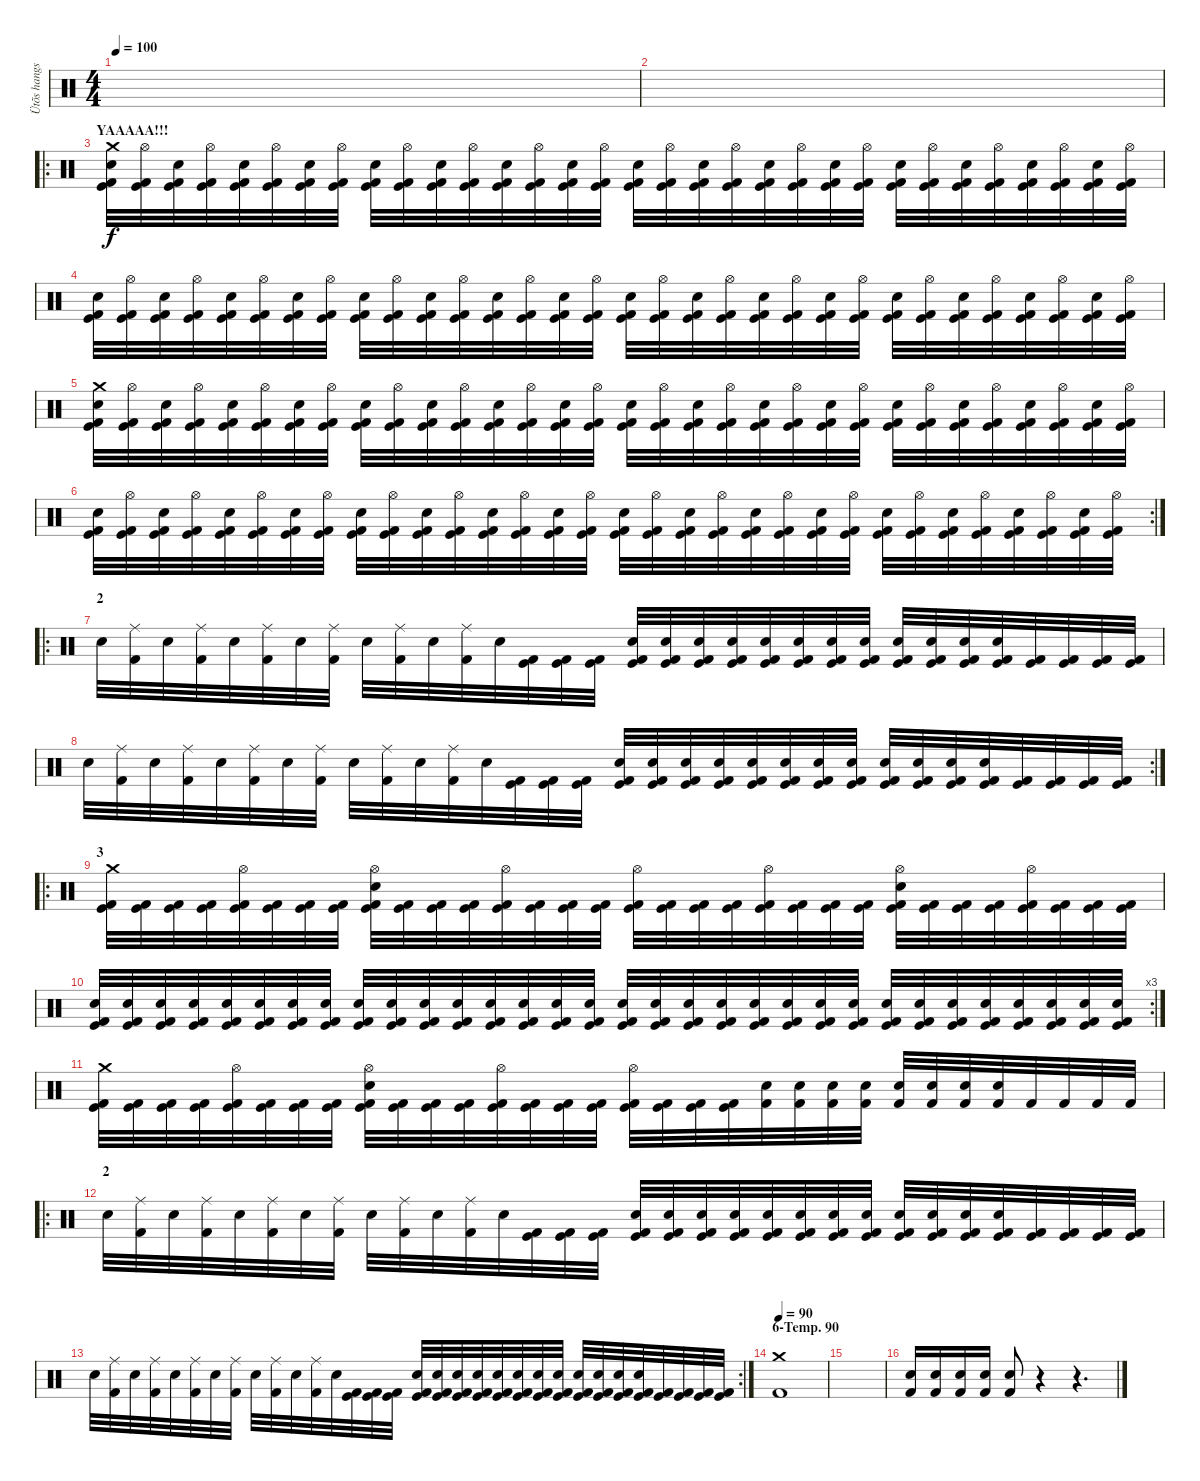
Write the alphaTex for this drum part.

\track ("Ütõs hangszer" "Ütõs hangs") {instrument percussion}
\staff {score}
\articulation defaults
\ts (4 4)
\tempo 100
\clef neutral
\ks c
|
|
\ro
\section ("" "YAAAAA!!!")
("Crash medium (hit)" "Snare (hit) 2" "Kick (hit)" "Kick (hit) 2").32 ("Hi-Hat (open)" "Kick (hit)" "Kick (hit) 2").32 ("Snare (hit) 2" "Kick (hit)" "Kick (hit) 2").32 ("Hi-Hat (open)" "Kick (hit)" "Kick (hit) 2").32 ("Snare (hit) 2" "Kick (hit)" "Kick (hit) 2").32 ("Hi-Hat (open)" "Kick (hit)" "Kick (hit) 2").32 ("Snare (hit) 2" "Kick (hit)" "Kick (hit) 2").32 ("Hi-Hat (open)" "Kick (hit)" "Kick (hit) 2").32 ("Snare (hit) 2" "Kick (hit)" "Kick (hit) 2").32 ("Hi-Hat (open)" "Kick (hit)" "Kick (hit) 2").32 ("Snare (hit) 2" "Kick (hit)" "Kick (hit) 2").32 ("Hi-Hat (open)" "Kick (hit)" "Kick (hit) 2").32 ("Snare (hit) 2" "Kick (hit)" "Kick (hit) 2").32 ("Hi-Hat (open)" "Kick (hit)" "Kick (hit) 2").32 ("Snare (hit) 2" "Kick (hit)" "Kick (hit) 2").32 ("Hi-Hat (open)" "Kick (hit)" "Kick (hit) 2").32 ("Snare (hit) 2" "Kick (hit)" "Kick (hit) 2").32 ("Hi-Hat (open)" "Kick (hit)" "Kick (hit) 2").32 ("Snare (hit) 2" "Kick (hit)" "Kick (hit) 2").32 ("Hi-Hat (open)" "Kick (hit)" "Kick (hit) 2").32 ("Snare (hit) 2" "Kick (hit)" "Kick (hit) 2").32 ("Hi-Hat (open)" "Kick (hit)" "Kick (hit) 2").32 ("Snare (hit) 2" "Kick (hit)" "Kick (hit) 2").32 ("Hi-Hat (open)" "Kick (hit)" "Kick (hit) 2").32 ("Snare (hit) 2" "Kick (hit)" "Kick (hit) 2").32 ("Hi-Hat (open)" "Kick (hit)" "Kick (hit) 2").32 ("Snare (hit) 2" "Kick (hit)" "Kick (hit) 2").32 ("Hi-Hat (open)" "Kick (hit)" "Kick (hit) 2").32 ("Snare (hit) 2" "Kick (hit)" "Kick (hit) 2").32 ("Hi-Hat (open)" "Kick (hit)" "Kick (hit) 2").32 ("Snare (hit) 2" "Kick (hit)" "Kick (hit) 2").32 ("Hi-Hat (open)" "Kick (hit)" "Kick (hit) 2").32 |
("Snare (hit) 2" "Kick (hit)" "Kick (hit) 2").32 ("Hi-Hat (open)" "Kick (hit)" "Kick (hit) 2").32 ("Snare (hit) 2" "Kick (hit)" "Kick (hit) 2").32 ("Hi-Hat (open)" "Kick (hit)" "Kick (hit) 2").32 ("Snare (hit) 2" "Kick (hit)" "Kick (hit) 2").32 ("Hi-Hat (open)" "Kick (hit)" "Kick (hit) 2").32 ("Snare (hit) 2" "Kick (hit)" "Kick (hit) 2").32 ("Hi-Hat (open)" "Kick (hit)" "Kick (hit) 2").32 ("Snare (hit) 2" "Kick (hit)" "Kick (hit) 2").32 ("Hi-Hat (open)" "Kick (hit)" "Kick (hit) 2").32 ("Snare (hit) 2" "Kick (hit)" "Kick (hit) 2").32 ("Hi-Hat (open)" "Kick (hit)" "Kick (hit) 2").32 ("Snare (hit) 2" "Kick (hit)" "Kick (hit) 2").32 ("Hi-Hat (open)" "Kick (hit)" "Kick (hit) 2").32 ("Snare (hit) 2" "Kick (hit)" "Kick (hit) 2").32 ("Hi-Hat (open)" "Kick (hit)" "Kick (hit) 2").32 ("Snare (hit) 2" "Kick (hit)" "Kick (hit) 2").32 ("Hi-Hat (open)" "Kick (hit)" "Kick (hit) 2").32 ("Snare (hit) 2" "Kick (hit)" "Kick (hit) 2").32 ("Hi-Hat (open)" "Kick (hit)" "Kick (hit) 2").32 ("Snare (hit) 2" "Kick (hit)" "Kick (hit) 2").32 ("Hi-Hat (open)" "Kick (hit)" "Kick (hit) 2").32 ("Snare (hit) 2" "Kick (hit)" "Kick (hit) 2").32 ("Hi-Hat (open)" "Kick (hit)" "Kick (hit) 2").32 ("Snare (hit) 2" "Kick (hit)" "Kick (hit) 2").32 ("Hi-Hat (open)" "Kick (hit)" "Kick (hit) 2").32 ("Snare (hit) 2" "Kick (hit)" "Kick (hit) 2").32 ("Hi-Hat (open)" "Kick (hit)" "Kick (hit) 2").32 ("Snare (hit) 2" "Kick (hit)" "Kick (hit) 2").32 ("Hi-Hat (open)" "Kick (hit)" "Kick (hit) 2").32 ("Snare (hit) 2" "Kick (hit)" "Kick (hit) 2").32 ("Hi-Hat (open)" "Kick (hit)" "Kick (hit) 2").32 |
("Crash medium (hit)" "Snare (hit) 2" "Kick (hit)" "Kick (hit) 2").32 ("Hi-Hat (open)" "Kick (hit)" "Kick (hit) 2").32 ("Snare (hit) 2" "Kick (hit)" "Kick (hit) 2").32 ("Hi-Hat (open)" "Kick (hit)" "Kick (hit) 2").32 ("Snare (hit) 2" "Kick (hit)" "Kick (hit) 2").32 ("Hi-Hat (open)" "Kick (hit)" "Kick (hit) 2").32 ("Snare (hit) 2" "Kick (hit)" "Kick (hit) 2").32 ("Hi-Hat (open)" "Kick (hit)" "Kick (hit) 2").32 ("Snare (hit) 2" "Kick (hit)" "Kick (hit) 2").32 ("Hi-Hat (open)" "Kick (hit)" "Kick (hit) 2").32 ("Snare (hit) 2" "Kick (hit)" "Kick (hit) 2").32 ("Hi-Hat (open)" "Kick (hit)" "Kick (hit) 2").32 ("Snare (hit) 2" "Kick (hit)" "Kick (hit) 2").32 ("Hi-Hat (open)" "Kick (hit)" "Kick (hit) 2").32 ("Snare (hit) 2" "Kick (hit)" "Kick (hit) 2").32 ("Hi-Hat (open)" "Kick (hit)" "Kick (hit) 2").32 ("Snare (hit) 2" "Kick (hit)" "Kick (hit) 2").32 ("Hi-Hat (open)" "Kick (hit)" "Kick (hit) 2").32 ("Snare (hit) 2" "Kick (hit)" "Kick (hit) 2").32 ("Hi-Hat (open)" "Kick (hit)" "Kick (hit) 2").32 ("Snare (hit) 2" "Kick (hit)" "Kick (hit) 2").32 ("Hi-Hat (open)" "Kick (hit)" "Kick (hit) 2").32 ("Snare (hit) 2" "Kick (hit)" "Kick (hit) 2").32 ("Hi-Hat (open)" "Kick (hit)" "Kick (hit) 2").32 ("Snare (hit) 2" "Kick (hit)" "Kick (hit) 2").32 ("Hi-Hat (open)" "Kick (hit)" "Kick (hit) 2").32 ("Snare (hit) 2" "Kick (hit)" "Kick (hit) 2").32 ("Hi-Hat (open)" "Kick (hit)" "Kick (hit) 2").32 ("Snare (hit) 2" "Kick (hit)" "Kick (hit) 2").32 ("Hi-Hat (open)" "Kick (hit)" "Kick (hit) 2").32 ("Snare (hit) 2" "Kick (hit)" "Kick (hit) 2").32 ("Hi-Hat (open)" "Kick (hit)" "Kick (hit) 2").32 |
\rc 2
("Snare (hit) 2" "Kick (hit)" "Kick (hit) 2").32 ("Hi-Hat (open)" "Kick (hit)" "Kick (hit) 2").32 ("Snare (hit) 2" "Kick (hit)" "Kick (hit) 2").32 ("Hi-Hat (open)" "Kick (hit)" "Kick (hit) 2").32 ("Snare (hit) 2" "Kick (hit)" "Kick (hit) 2").32 ("Hi-Hat (open)" "Kick (hit)" "Kick (hit) 2").32 ("Snare (hit) 2" "Kick (hit)" "Kick (hit) 2").32 ("Hi-Hat (open)" "Kick (hit)" "Kick (hit) 2").32 ("Snare (hit) 2" "Kick (hit)" "Kick (hit) 2").32 ("Hi-Hat (open)" "Kick (hit)" "Kick (hit) 2").32 ("Snare (hit) 2" "Kick (hit)" "Kick (hit) 2").32 ("Hi-Hat (open)" "Kick (hit)" "Kick (hit) 2").32 ("Snare (hit) 2" "Kick (hit)" "Kick (hit) 2").32 ("Hi-Hat (open)" "Kick (hit)" "Kick (hit) 2").32 ("Snare (hit) 2" "Kick (hit)" "Kick (hit) 2").32 ("Hi-Hat (open)" "Kick (hit)" "Kick (hit) 2").32 ("Snare (hit) 2" "Kick (hit)" "Kick (hit) 2").32 ("Hi-Hat (open)" "Kick (hit)" "Kick (hit) 2").32 ("Snare (hit) 2" "Kick (hit)" "Kick (hit) 2").32 ("Hi-Hat (open)" "Kick (hit)" "Kick (hit) 2").32 ("Snare (hit) 2" "Kick (hit)" "Kick (hit) 2").32 ("Hi-Hat (open)" "Kick (hit)" "Kick (hit) 2").32 ("Snare (hit) 2" "Kick (hit)" "Kick (hit) 2").32 ("Hi-Hat (open)" "Kick (hit)" "Kick (hit) 2").32 ("Snare (hit) 2" "Kick (hit)" "Kick (hit) 2").32 ("Hi-Hat (open)" "Kick (hit)" "Kick (hit) 2").32 ("Snare (hit) 2" "Kick (hit)" "Kick (hit) 2").32 ("Hi-Hat (open)" "Kick (hit)" "Kick (hit) 2").32 ("Snare (hit) 2" "Kick (hit)" "Kick (hit) 2").32 ("Hi-Hat (open)" "Kick (hit)" "Kick (hit) 2").32 ("Snare (hit) 2" "Kick (hit)" "Kick (hit) 2").32 ("Hi-Hat (open)" "Kick (hit)" "Kick (hit) 2").32 |
\ro
\section ("" "2")
"Snare (hit) 2".32 ("Ride (middle)" "Kick (hit) 2").32 "Snare (hit) 2".32 ("Ride (middle)" "Kick (hit) 2").32 "Snare (hit) 2".32 ("Ride (middle)" "Kick (hit) 2").32 "Snare (hit) 2".32 ("Ride (middle)" "Kick (hit) 2").32 "Snare (hit) 2".32 ("Ride (middle)" "Kick (hit) 2").32 "Snare (hit) 2".32 ("Ride (middle)" "Kick (hit) 2").32 "Snare (hit) 2".32 ("Kick (hit)" "Kick (hit) 2").32 ("Kick (hit)" "Kick (hit) 2").32 ("Kick (hit)" "Kick (hit) 2").32 ("Snare (hit) 2" "Kick (hit)" "Kick (hit) 2").32 ("Snare (hit) 2" "Kick (hit)" "Kick (hit) 2").32 ("Snare (hit) 2" "Kick (hit)" "Kick (hit) 2").32 ("Snare (hit) 2" "Kick (hit)" "Kick (hit) 2").32 ("Snare (hit) 2" "Kick (hit)" "Kick (hit) 2").32 ("Snare (hit) 2" "Kick (hit)" "Kick (hit) 2").32 ("Snare (hit) 2" "Kick (hit)" "Kick (hit) 2").32 ("Snare (hit) 2" "Kick (hit)" "Kick (hit) 2").32 ("Snare (hit) 2" "Kick (hit)" "Kick (hit) 2").32 ("Snare (hit) 2" "Kick (hit)" "Kick (hit) 2").32 ("Snare (hit) 2" "Kick (hit)" "Kick (hit) 2").32 ("Snare (hit) 2" "Kick (hit)" "Kick (hit) 2").32 ("Kick (hit)" "Kick (hit) 2").32 ("Kick (hit)" "Kick (hit) 2").32 ("Kick (hit)" "Kick (hit) 2").32 ("Kick (hit)" "Kick (hit) 2").32 |
\rc 2 "Snare (hit) 2".32
("Ride (middle)" "Kick (hit) 2").32 "Snare (hit) 2".32 ("Ride (middle)" "Kick (hit) 2").32 "Snare (hit) 2".32 ("Ride (middle)" "Kick (hit) 2").32 "Snare (hit) 2".32 ("Ride (middle)" "Kick (hit) 2").32 "Snare (hit) 2".32 ("Ride (middle)" "Kick (hit) 2").32 "Snare (hit) 2".32 ("Ride (middle)" "Kick (hit) 2").32 "Snare (hit) 2".32 ("Kick (hit)" "Kick (hit) 2").32 ("Kick (hit)" "Kick (hit) 2").32 ("Kick (hit)" "Kick (hit) 2").32 ("Snare (hit) 2" "Kick (hit)" "Kick (hit) 2").32 ("Snare (hit) 2" "Kick (hit)" "Kick (hit) 2").32 ("Snare (hit) 2" "Kick (hit)" "Kick (hit) 2").32 ("Snare (hit) 2" "Kick (hit)" "Kick (hit) 2").32 ("Snare (hit) 2" "Kick (hit)" "Kick (hit) 2").32 ("Snare (hit) 2" "Kick (hit)" "Kick (hit) 2").32 ("Snare (hit) 2" "Kick (hit)" "Kick (hit) 2").32 ("Snare (hit) 2" "Kick (hit)" "Kick (hit) 2").32 ("Snare (hit) 2" "Kick (hit)" "Kick (hit) 2").32 ("Snare (hit) 2" "Kick (hit)" "Kick (hit) 2").32 ("Snare (hit) 2" "Kick (hit)" "Kick (hit) 2").32 ("Snare (hit) 2" "Kick (hit)" "Kick (hit) 2").32 ("Kick (hit)" "Kick (hit) 2").32 ("Kick (hit)" "Kick (hit) 2").32 ("Kick (hit)" "Kick (hit) 2").32 ("Kick (hit)" "Kick (hit) 2").32 |
\ro
\section ("" "3")
("Crash medium (hit)" "Kick (hit)" "Kick (hit) 2").32 ("Kick (hit)" "Kick (hit) 2").32 ("Kick (hit)" "Kick (hit) 2").32 ("Kick (hit)" "Kick (hit) 2").32 ("Hi-Hat (open)" "Kick (hit)" "Kick (hit) 2").32 ("Kick (hit)" "Kick (hit) 2").32 ("Kick (hit)" "Kick (hit) 2").32 ("Kick (hit)" "Kick (hit) 2").32 ("Hi-Hat (open)" "Snare (hit) 2" "Kick (hit)" "Kick (hit) 2").32 ("Kick (hit)" "Kick (hit) 2").32 ("Kick (hit)" "Kick (hit) 2").32 ("Kick (hit)" "Kick (hit) 2").32 ("Hi-Hat (open)" "Kick (hit)" "Kick (hit) 2").32 ("Kick (hit)" "Kick (hit) 2").32 ("Kick (hit)" "Kick (hit) 2").32 ("Kick (hit)" "Kick (hit) 2").32 ("Hi-Hat (open)" "Kick (hit)" "Kick (hit) 2").32 ("Kick (hit)" "Kick (hit) 2").32 ("Kick (hit)" "Kick (hit) 2").32 ("Kick (hit)" "Kick (hit) 2").32 ("Hi-Hat (open)" "Kick (hit)" "Kick (hit) 2").32 ("Kick (hit)" "Kick (hit) 2").32 ("Kick (hit)" "Kick (hit) 2").32 ("Kick (hit)" "Kick (hit) 2").32 ("Hi-Hat (open)" "Snare (hit) 2" "Kick (hit)" "Kick (hit) 2").32 ("Kick (hit)" "Kick (hit) 2").32 ("Kick (hit)" "Kick (hit) 2").32 ("Kick (hit)" "Kick (hit) 2").32 ("Hi-Hat (open)" "Kick (hit)" "Kick (hit) 2").32 ("Kick (hit)" "Kick (hit) 2").32 ("Kick (hit)" "Kick (hit) 2").32 ("Kick (hit)" "Kick (hit) 2").32 |
\rc 3
("Snare (hit) 2" "Kick (hit)" "Kick (hit) 2").32 ("Snare (hit) 2" "Kick (hit)" "Kick (hit) 2").32 ("Snare (hit) 2" "Kick (hit)" "Kick (hit) 2").32 ("Snare (hit) 2" "Kick (hit)" "Kick (hit) 2").32 ("Snare (hit) 2" "Kick (hit)" "Kick (hit) 2").32 ("Snare (hit) 2" "Kick (hit)" "Kick (hit) 2").32 ("Snare (hit) 2" "Kick (hit)" "Kick (hit) 2").32 ("Snare (hit) 2" "Kick (hit)" "Kick (hit) 2").32 ("Snare (hit) 2" "Kick (hit)" "Kick (hit) 2").32 ("Snare (hit) 2" "Kick (hit)" "Kick (hit) 2").32 ("Snare (hit) 2" "Kick (hit)" "Kick (hit) 2").32 ("Snare (hit) 2" "Kick (hit)" "Kick (hit) 2").32 ("Snare (hit) 2" "Kick (hit)" "Kick (hit) 2").32 ("Snare (hit) 2" "Kick (hit)" "Kick (hit) 2").32 ("Snare (hit) 2" "Kick (hit)" "Kick (hit) 2").32 ("Snare (hit) 2" "Kick (hit)" "Kick (hit) 2").32 ("Snare (hit) 2" "Kick (hit)" "Kick (hit) 2").32 ("Snare (hit) 2" "Kick (hit)" "Kick (hit) 2").32 ("Snare (hit) 2" "Kick (hit)" "Kick (hit) 2").32 ("Snare (hit) 2" "Kick (hit)" "Kick (hit) 2").32 ("Snare (hit) 2" "Kick (hit)" "Kick (hit) 2").32 ("Snare (hit) 2" "Kick (hit)" "Kick (hit) 2").32 ("Snare (hit) 2" "Kick (hit)" "Kick (hit) 2").32 ("Snare (hit) 2" "Kick (hit)" "Kick (hit) 2").32 ("Snare (hit) 2" "Kick (hit)" "Kick (hit) 2").32 ("Snare (hit) 2" "Kick (hit)" "Kick (hit) 2").32 ("Snare (hit) 2" "Kick (hit)" "Kick (hit) 2").32 ("Snare (hit) 2" "Kick (hit)" "Kick (hit) 2").32 ("Snare (hit) 2" "Kick (hit)" "Kick (hit) 2").32 ("Snare (hit) 2" "Kick (hit)" "Kick (hit) 2").32 ("Snare (hit) 2" "Kick (hit)" "Kick (hit) 2").32 ("Snare (hit) 2" "Kick (hit)" "Kick (hit) 2").32 |
("Crash medium (hit)" "Kick (hit)" "Kick (hit) 2").32 ("Kick (hit)" "Kick (hit) 2").32 ("Kick (hit)" "Kick (hit) 2").32 ("Kick (hit)" "Kick (hit) 2").32 ("Hi-Hat (open)" "Kick (hit)" "Kick (hit) 2").32 ("Kick (hit)" "Kick (hit) 2").32 ("Kick (hit)" "Kick (hit) 2").32 ("Kick (hit)" "Kick (hit) 2").32 ("Hi-Hat (open)" "Snare (hit) 2" "Kick (hit)" "Kick (hit) 2").32 ("Kick (hit)" "Kick (hit) 2").32 ("Kick (hit)" "Kick (hit) 2").32 ("Kick (hit)" "Kick (hit) 2").32 ("Hi-Hat (open)" "Kick (hit)" "Kick (hit) 2").32 ("Kick (hit)" "Kick (hit) 2").32 ("Kick (hit)" "Kick (hit) 2").32 ("Kick (hit)" "Kick (hit) 2").32 ("Hi-Hat (open)" "Kick (hit)" "Kick (hit) 2").32 ("Kick (hit)" "Kick (hit) 2").32 ("Kick (hit)" "Kick (hit) 2").32 ("Kick (hit)" "Kick (hit) 2").32 ("Snare (hit) 2" "Kick (hit) 2").32 ("Snare (hit) 2" "Kick (hit) 2").32 ("Snare (hit) 2" "Kick (hit) 2").32 ("Snare (hit) 2" "Kick (hit) 2").32 ("Snare (hit) 2" "Kick (hit) 2").32 ("Snare (hit) 2" "Kick (hit) 2").32 ("Snare (hit) 2" "Kick (hit) 2").32 ("Snare (hit) 2" "Kick (hit) 2").32 "Kick (hit) 2".32 "Kick (hit) 2".32 "Kick (hit) 2".32 "Kick (hit) 2".32 |
\ro
\section ("" "2")
"Snare (hit) 2".32 ("Ride (middle)" "Kick (hit) 2").32 "Snare (hit) 2".32 ("Ride (middle)" "Kick (hit) 2").32 "Snare (hit) 2".32 ("Ride (middle)" "Kick (hit) 2").32 "Snare (hit) 2".32 ("Ride (middle)" "Kick (hit) 2").32 "Snare (hit) 2".32 ("Ride (middle)" "Kick (hit) 2").32 "Snare (hit) 2".32 ("Ride (middle)" "Kick (hit) 2").32 "Snare (hit) 2".32 ("Kick (hit)" "Kick (hit) 2").32 ("Kick (hit)" "Kick (hit) 2").32 ("Kick (hit)" "Kick (hit) 2").32 ("Snare (hit) 2" "Kick (hit)" "Kick (hit) 2").32 ("Snare (hit) 2" "Kick (hit)" "Kick (hit) 2").32 ("Snare (hit) 2" "Kick (hit)" "Kick (hit) 2").32 ("Snare (hit) 2" "Kick (hit)" "Kick (hit) 2").32 ("Snare (hit) 2" "Kick (hit)" "Kick (hit) 2").32 ("Snare (hit) 2" "Kick (hit)" "Kick (hit) 2").32 ("Snare (hit) 2" "Kick (hit)" "Kick (hit) 2").32 ("Snare (hit) 2" "Kick (hit)" "Kick (hit) 2").32 ("Snare (hit) 2" "Kick (hit)" "Kick (hit) 2").32 ("Snare (hit) 2" "Kick (hit)" "Kick (hit) 2").32 ("Snare (hit) 2" "Kick (hit)" "Kick (hit) 2").32 ("Snare (hit) 2" "Kick (hit)" "Kick (hit) 2").32 ("Kick (hit)" "Kick (hit) 2").32 ("Kick (hit)" "Kick (hit) 2").32 ("Kick (hit)" "Kick (hit) 2").32 ("Kick (hit)" "Kick (hit) 2").32 |
\rc 2 "Snare (hit) 2".32
("Ride (middle)" "Kick (hit) 2").32 "Snare (hit) 2".32 ("Ride (middle)" "Kick (hit) 2").32 "Snare (hit) 2".32 ("Ride (middle)" "Kick (hit) 2").32 "Snare (hit) 2".32 ("Ride (middle)" "Kick (hit) 2").32 "Snare (hit) 2".32 ("Ride (middle)" "Kick (hit) 2").32 "Snare (hit) 2".32 ("Ride (middle)" "Kick (hit) 2").32 "Snare (hit) 2".32 ("Kick (hit)" "Kick (hit) 2").32 ("Kick (hit)" "Kick (hit) 2").32 ("Kick (hit)" "Kick (hit) 2").32 ("Snare (hit) 2" "Kick (hit)" "Kick (hit) 2").32 ("Snare (hit) 2" "Kick (hit)" "Kick (hit) 2").32 ("Snare (hit) 2" "Kick (hit)" "Kick (hit) 2").32 ("Snare (hit) 2" "Kick (hit)" "Kick (hit) 2").32 ("Snare (hit) 2" "Kick (hit)" "Kick (hit) 2").32 ("Snare (hit) 2" "Kick (hit)" "Kick (hit) 2").32 ("Snare (hit) 2" "Kick (hit)" "Kick (hit) 2").32 ("Snare (hit) 2" "Kick (hit)" "Kick (hit) 2").32 ("Snare (hit) 2" "Kick (hit)" "Kick (hit) 2").32 ("Snare (hit) 2" "Kick (hit)" "Kick (hit) 2").32 ("Snare (hit) 2" "Kick (hit)" "Kick (hit) 2").32 ("Snare (hit) 2" "Kick (hit)" "Kick (hit) 2").32 ("Kick (hit)" "Kick (hit) 2").32 ("Kick (hit)" "Kick (hit) 2").32 ("Kick (hit)" "Kick (hit) 2").32 ("Kick (hit)" "Kick (hit) 2").32 |
\section ("" "6-Temp. 90")
\tempo 90
("Crash medium (hit)" "Kick (hit) 2").1 |
|
("Kick (hit) 2" "Snare (hit) 2").16 ("Kick (hit) 2" "Snare (hit) 2").16 ("Kick (hit) 2" "Snare (hit) 2").16 ("Kick (hit) 2" "Snare (hit) 2").16 ("Kick (hit) 2" "Snare (hit) 2").8 r.4 r.4{d}
